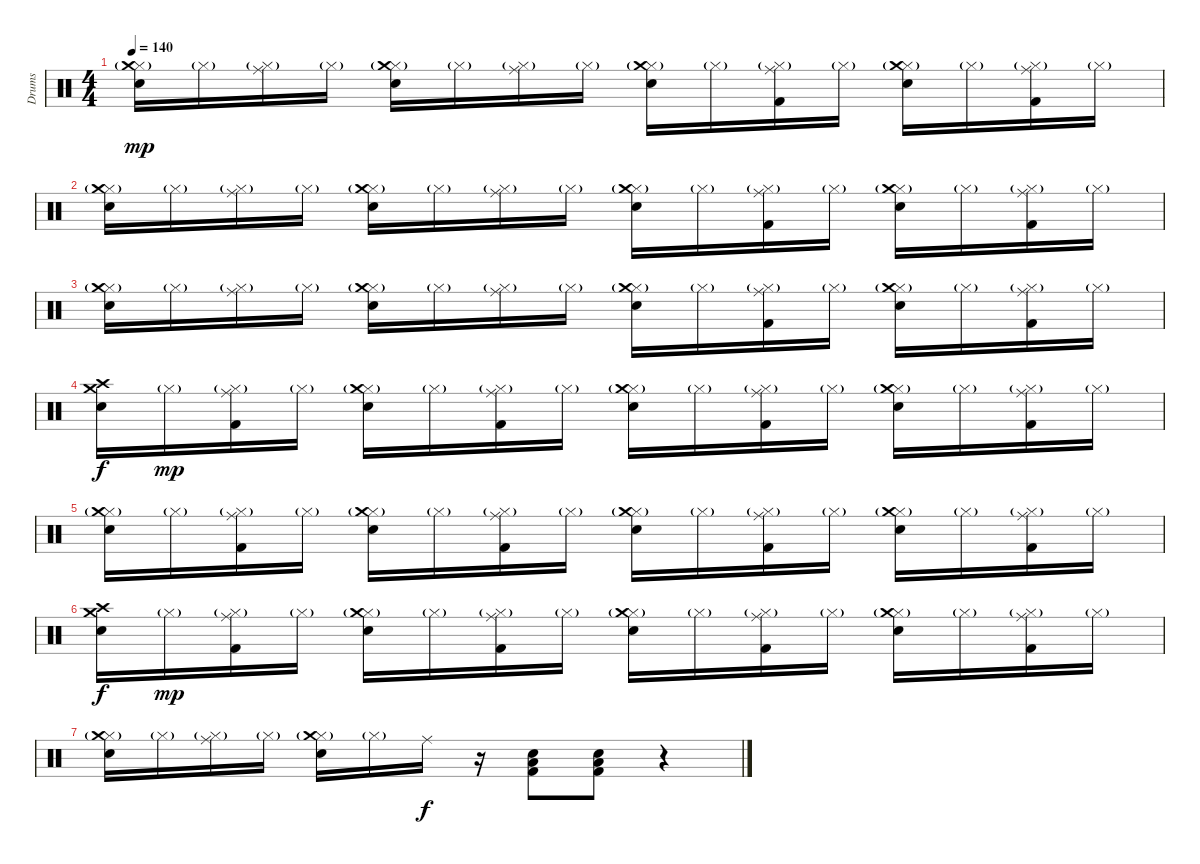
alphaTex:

\track ("Drums" "Drums") {instrument percussion}
\staff {score}
\articulation defaults
\ts (4 4)
\tempo 140
\clef neutral
\ks c
("Hi-Hat (closed)"{g} "Crash medium (hit)" "Electric Snare (hit)").16{dy mp} "Hi-Hat (closed)"{g}.16 ("Hi-Hat (closed)"{g} "Ride (middle)").16 "Hi-Hat (closed)"{g}.16 ("Hi-Hat (closed)"{g} "Crash medium (hit)" "Electric Snare (hit)").16 "Hi-Hat (closed)"{g}.16 ("Hi-Hat (closed)"{g} "Ride (middle)").16 "Hi-Hat (closed)"{g}.16 ("Hi-Hat (closed)"{g} "Crash medium (hit)" "Electric Snare (hit)").16 "Hi-Hat (closed)"{g}.16 ("Hi-Hat (closed)"{g} "Ride (middle)" "Kick (hit) 2").16 "Hi-Hat (closed)"{g}.16 ("Hi-Hat (closed)"{g} "Crash medium (hit)" "Electric Snare (hit)").16 "Hi-Hat (closed)"{g}.16 ("Hi-Hat (closed)"{g} "Ride (middle)" "Kick (hit) 2").16 "Hi-Hat (closed)"{g}.16 |
("Hi-Hat (closed)"{g} "Crash medium (hit)" "Electric Snare (hit)").16 "Hi-Hat (closed)"{g}.16 ("Hi-Hat (closed)"{g} "Ride (middle)").16 "Hi-Hat (closed)"{g}.16 ("Hi-Hat (closed)"{g} "Crash medium (hit)" "Electric Snare (hit)").16 "Hi-Hat (closed)"{g}.16 ("Hi-Hat (closed)"{g} "Ride (middle)").16 "Hi-Hat (closed)"{g}.16 ("Hi-Hat (closed)"{g} "Crash medium (hit)" "Electric Snare (hit)").16 "Hi-Hat (closed)"{g}.16 ("Hi-Hat (closed)"{g} "Ride (middle)" "Kick (hit) 2").16 "Hi-Hat (closed)"{g}.16 ("Hi-Hat (closed)"{g} "Crash medium (hit)" "Electric Snare (hit)").16 "Hi-Hat (closed)"{g}.16 ("Hi-Hat (closed)"{g} "Ride (middle)" "Kick (hit) 2").16 "Hi-Hat (closed)"{g}.16 |
("Hi-Hat (closed)"{g} "Crash medium (hit)" "Electric Snare (hit)").16 "Hi-Hat (closed)"{g}.16 ("Hi-Hat (closed)"{g} "Ride (middle)").16 "Hi-Hat (closed)"{g}.16 ("Hi-Hat (closed)"{g} "Crash medium (hit)" "Electric Snare (hit)").16 "Hi-Hat (closed)"{g}.16 ("Hi-Hat (closed)"{g} "Ride (middle)").16 "Hi-Hat (closed)"{g}.16 ("Hi-Hat (closed)"{g} "Crash medium (hit)" "Electric Snare (hit)").16 "Hi-Hat (closed)"{g}.16 ("Hi-Hat (closed)"{g} "Ride (middle)" "Kick (hit) 2").16 "Hi-Hat (closed)"{g}.16 ("Hi-Hat (closed)"{g} "Crash medium (hit)" "Electric Snare (hit)").16 "Hi-Hat (closed)"{g}.16 ("Hi-Hat (closed)"{g} "Ride (middle)" "Kick (hit) 2").16 "Hi-Hat (closed)"{g}.16 |
("Crash high (hit)" "Crash medium (hit)" "Electric Snare (hit)").16{dy f} "Hi-Hat (closed)"{g}.16{dy mp} ("Hi-Hat (closed)"{g} "Ride (middle)" "Kick (hit) 2").16 "Hi-Hat (closed)"{g}.16 ("Hi-Hat (closed)"{g} "Crash medium (hit)" "Electric Snare (hit)").16 "Hi-Hat (closed)"{g}.16 ("Hi-Hat (closed)"{g} "Ride (middle)" "Kick (hit) 2").16 "Hi-Hat (closed)"{g}.16 ("Hi-Hat (closed)"{g} "Crash medium (hit)" "Electric Snare (hit)").16 "Hi-Hat (closed)"{g}.16 ("Hi-Hat (closed)"{g} "Ride (middle)" "Kick (hit) 2").16 "Hi-Hat (closed)"{g}.16 ("Hi-Hat (closed)"{g} "Crash medium (hit)" "Electric Snare (hit)").16 "Hi-Hat (closed)"{g}.16 ("Hi-Hat (closed)"{g} "Ride (middle)" "Kick (hit) 2").16 "Hi-Hat (closed)"{g}.16 |
("Hi-Hat (closed)"{g} "Crash medium (hit)" "Electric Snare (hit)").16 "Hi-Hat (closed)"{g}.16 ("Hi-Hat (closed)"{g} "Ride (middle)" "Kick (hit) 2").16 "Hi-Hat (closed)"{g}.16 ("Hi-Hat (closed)"{g} "Crash medium (hit)" "Electric Snare (hit)").16 "Hi-Hat (closed)"{g}.16 ("Hi-Hat (closed)"{g} "Ride (middle)" "Kick (hit) 2").16 "Hi-Hat (closed)"{g}.16 ("Hi-Hat (closed)"{g} "Crash medium (hit)" "Electric Snare (hit)").16 "Hi-Hat (closed)"{g}.16 ("Hi-Hat (closed)"{g} "Ride (middle)" "Kick (hit) 2").16 "Hi-Hat (closed)"{g}.16 ("Hi-Hat (closed)"{g} "Crash medium (hit)" "Electric Snare (hit)").16 "Hi-Hat (closed)"{g}.16 ("Hi-Hat (closed)"{g} "Ride (middle)" "Kick (hit) 2").16 "Hi-Hat (closed)"{g}.16 |
("Crash high (hit)" "Crash medium (hit)" "Electric Snare (hit)").16{dy f} "Hi-Hat (closed)"{g}.16{dy mp} ("Hi-Hat (closed)"{g} "Ride (middle)" "Kick (hit) 2").16 "Hi-Hat (closed)"{g}.16 ("Hi-Hat (closed)"{g} "Crash medium (hit)" "Electric Snare (hit)").16 "Hi-Hat (closed)"{g}.16 ("Hi-Hat (closed)"{g} "Ride (middle)" "Kick (hit) 2").16 "Hi-Hat (closed)"{g}.16 ("Hi-Hat (closed)"{g} "Crash medium (hit)" "Electric Snare (hit)").16 "Hi-Hat (closed)"{g}.16 ("Hi-Hat (closed)"{g} "Ride (middle)" "Kick (hit) 2").16 "Hi-Hat (closed)"{g}.16 ("Hi-Hat (closed)"{g} "Crash medium (hit)" "Electric Snare (hit)").16 "Hi-Hat (closed)"{g}.16 ("Hi-Hat (closed)"{g} "Ride (middle)" "Kick (hit) 2").16 "Hi-Hat (closed)"{g}.16 |
("Hi-Hat (closed)"{g} "Crash medium (hit)" "Electric Snare (hit)").16 "Hi-Hat (closed)"{g}.16 ("Hi-Hat (closed)"{g} "Ride (middle)").16 "Hi-Hat (closed)"{g}.16 ("Hi-Hat (closed)"{g} "Crash medium (hit)" "Electric Snare (hit)").16 "Hi-Hat (closed)"{g}.16 "Ride (middle)".16{dy f} r.16 ("Electric Snare (hit)" "Low Floor Tom (hit)" "Kick (hit) 2").8 ("Electric Snare (hit)" "Low Floor Tom (hit)" "Kick (hit) 2").8 r.4
